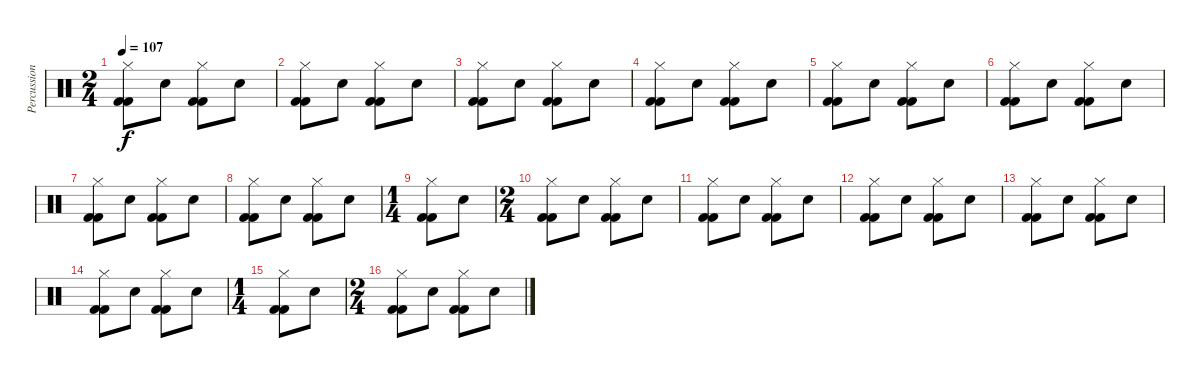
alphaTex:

\track ("Percussioni" "Percussion") {instrument percussion}
\staff {score}
\articulation defaults
\ts (2 4)
\tempo 107
\clef neutral
\ks c
("Hi-Hat (closed)" "Kick (hit) 2" "Kick (hit) 2").8{dy f} "Electric Snare (hit)".8 ("Hi-Hat (closed)" "Kick (hit) 2" "Kick (hit) 2").8 "Electric Snare (hit)".8 |
("Hi-Hat (closed)" "Kick (hit) 2" "Kick (hit) 2").8 "Electric Snare (hit)".8 ("Hi-Hat (closed)" "Kick (hit) 2" "Kick (hit) 2").8 "Electric Snare (hit)".8 |
("Hi-Hat (closed)" "Kick (hit) 2" "Kick (hit) 2").8 "Electric Snare (hit)".8 ("Hi-Hat (closed)" "Kick (hit) 2" "Kick (hit) 2").8 "Electric Snare (hit)".8 |
("Hi-Hat (closed)" "Kick (hit) 2" "Kick (hit) 2").8 "Electric Snare (hit)".8 ("Hi-Hat (closed)" "Kick (hit) 2" "Kick (hit) 2").8 "Electric Snare (hit)".8 |
("Hi-Hat (closed)" "Kick (hit) 2" "Kick (hit) 2").8 "Electric Snare (hit)".8 ("Hi-Hat (closed)" "Kick (hit) 2" "Kick (hit) 2").8 "Electric Snare (hit)".8 |
("Hi-Hat (closed)" "Kick (hit) 2" "Kick (hit) 2").8 "Electric Snare (hit)".8 ("Hi-Hat (closed)" "Kick (hit) 2" "Kick (hit) 2").8 "Electric Snare (hit)".8 |
("Hi-Hat (closed)" "Kick (hit) 2" "Kick (hit) 2").8 "Electric Snare (hit)".8 ("Hi-Hat (closed)" "Kick (hit) 2" "Kick (hit) 2").8 "Electric Snare (hit)".8 |
("Hi-Hat (closed)" "Kick (hit) 2" "Kick (hit) 2").8 "Electric Snare (hit)".8 ("Hi-Hat (closed)" "Kick (hit) 2" "Kick (hit) 2").8 "Electric Snare (hit)".8 |
\ts (1 4)
("Hi-Hat (closed)" "Kick (hit) 2" "Kick (hit) 2").8 "Electric Snare (hit)".8 |
\ts (2 4)
("Hi-Hat (closed)" "Kick (hit) 2" "Kick (hit) 2").8 "Electric Snare (hit)".8 ("Hi-Hat (closed)" "Kick (hit) 2" "Kick (hit) 2").8 "Electric Snare (hit)".8 |
("Hi-Hat (closed)" "Kick (hit) 2" "Kick (hit) 2").8 "Electric Snare (hit)".8 ("Hi-Hat (closed)" "Kick (hit) 2" "Kick (hit) 2").8 "Electric Snare (hit)".8 |
("Hi-Hat (closed)" "Kick (hit) 2" "Kick (hit) 2").8 "Electric Snare (hit)".8 ("Hi-Hat (closed)" "Kick (hit) 2" "Kick (hit) 2").8 "Electric Snare (hit)".8 |
("Hi-Hat (closed)" "Kick (hit) 2" "Kick (hit) 2").8 "Electric Snare (hit)".8 ("Hi-Hat (closed)" "Kick (hit) 2" "Kick (hit) 2").8 "Electric Snare (hit)".8 |
("Hi-Hat (closed)" "Kick (hit) 2" "Kick (hit) 2").8 "Electric Snare (hit)".8 ("Hi-Hat (closed)" "Kick (hit) 2" "Kick (hit) 2").8 "Electric Snare (hit)".8 |
\ts (1 4)
("Hi-Hat (closed)" "Kick (hit) 2" "Kick (hit) 2").8 "Electric Snare (hit)".8 |
\ts (2 4)
("Hi-Hat (closed)" "Kick (hit) 2" "Kick (hit) 2").8 "Electric Snare (hit)".8 ("Hi-Hat (closed)" "Kick (hit) 2" "Kick (hit) 2").8 "Electric Snare (hit)".8
